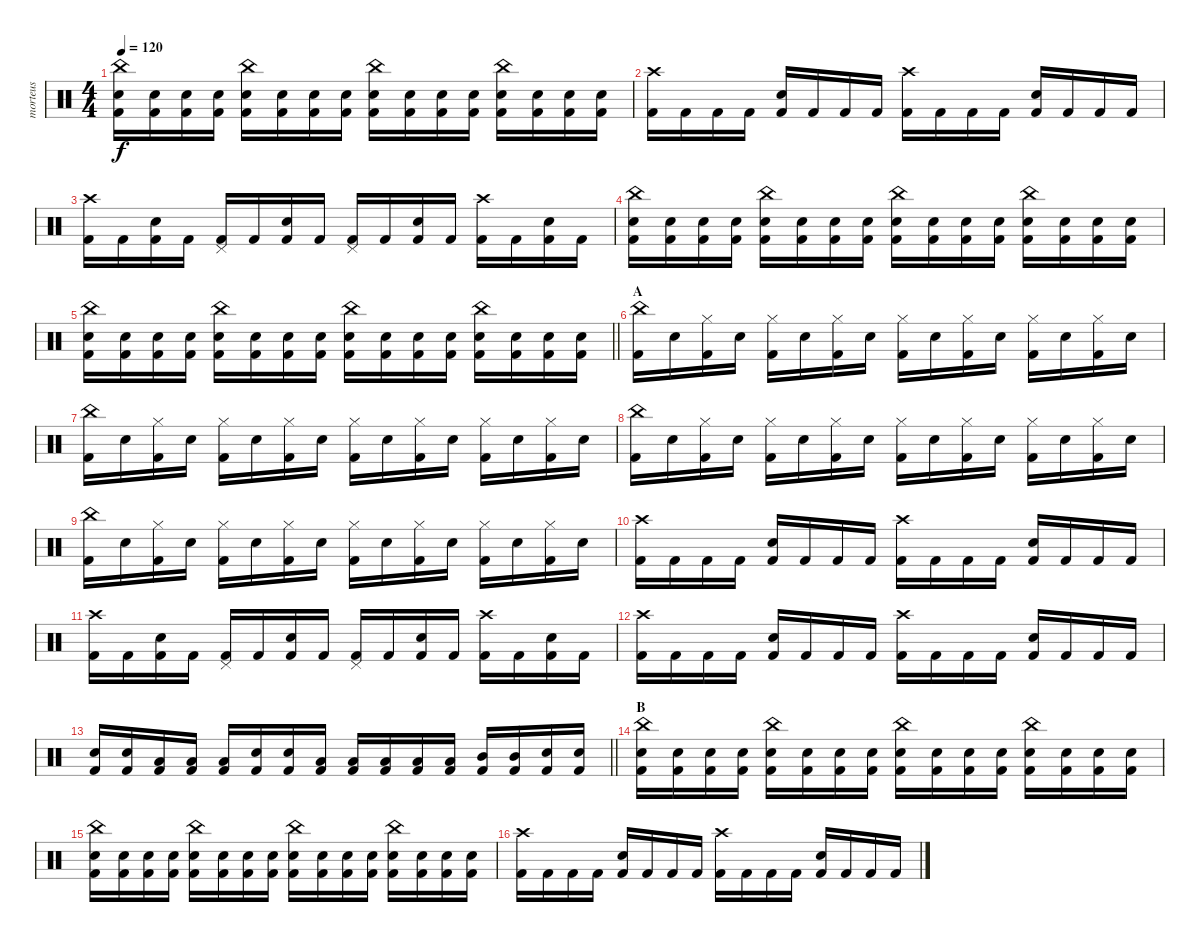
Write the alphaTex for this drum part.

\track ("morteus" "morteus") {instrument percussion}
\staff {score}
\articulation defaults
\ts (4 4)
\tempo 120
\clef neutral
\ks c
("China (hit)" "Electric Snare (hit)" "Kick (hit) 2").16{dy f} ("Electric Snare (hit)" "Kick (hit) 2").16 ("Electric Snare (hit)" "Kick (hit) 2").16 ("Electric Snare (hit)" "Kick (hit) 2").16 ("China (hit)" "Electric Snare (hit)" "Kick (hit) 2").16 ("Electric Snare (hit)" "Kick (hit) 2").16 ("Electric Snare (hit)" "Kick (hit) 2").16 ("Electric Snare (hit)" "Kick (hit) 2").16 ("China (hit)" "Electric Snare (hit)" "Kick (hit) 2").16 ("Electric Snare (hit)" "Kick (hit) 2").16 ("Electric Snare (hit)" "Kick (hit) 2").16 ("Electric Snare (hit)" "Kick (hit) 2").16 ("China (hit)" "Electric Snare (hit)" "Kick (hit) 2").16 ("Electric Snare (hit)" "Kick (hit) 2").16 ("Electric Snare (hit)" "Kick (hit) 2").16 ("Electric Snare (hit)" "Kick (hit) 2").16 |
("Crash high (hit)" "Kick (hit) 2").16 "Kick (hit) 2".16 "Kick (hit) 2".16 "Kick (hit) 2".16 ("Electric Snare (hit)" "Kick (hit) 2").16 "Kick (hit) 2".16 "Kick (hit) 2".16 "Kick (hit) 2".16 ("Crash high (hit)" "Kick (hit) 2").16 "Kick (hit) 2".16 "Kick (hit) 2".16 "Kick (hit) 2".16 ("Electric Snare (hit)" "Kick (hit) 2").16 "Kick (hit) 2".16 "Kick (hit) 2".16 "Kick (hit) 2".16 |
("Crash high (hit)" "Kick (hit) 2").16 "Kick (hit) 2".16 ("Electric Snare (hit)" "Kick (hit) 2").16 "Kick (hit) 2".16 ("Pedal Hi-Hat (hit)" "Kick (hit) 2").16 "Kick (hit) 2".16 ("Electric Snare (hit)" "Kick (hit) 2").16 "Kick (hit) 2".16 ("Pedal Hi-Hat (hit)" "Kick (hit) 2").16 "Kick (hit) 2".16 ("Electric Snare (hit)" "Kick (hit) 2").16 "Kick (hit) 2".16 ("Crash high (hit)" "Kick (hit) 2").16 "Kick (hit) 2".16 ("Electric Snare (hit)" "Kick (hit) 2").16 "Kick (hit) 2".16 |
("China (hit)" "Electric Snare (hit)" "Kick (hit) 2").16 ("Electric Snare (hit)" "Kick (hit) 2").16 ("Electric Snare (hit)" "Kick (hit) 2").16 ("Electric Snare (hit)" "Kick (hit) 2").16 ("China (hit)" "Electric Snare (hit)" "Kick (hit) 2").16 ("Electric Snare (hit)" "Kick (hit) 2").16 ("Electric Snare (hit)" "Kick (hit) 2").16 ("Electric Snare (hit)" "Kick (hit) 2").16 ("China (hit)" "Electric Snare (hit)" "Kick (hit) 2").16 ("Electric Snare (hit)" "Kick (hit) 2").16 ("Electric Snare (hit)" "Kick (hit) 2").16 ("Electric Snare (hit)" "Kick (hit) 2").16 ("China (hit)" "Electric Snare (hit)" "Kick (hit) 2").16 ("Electric Snare (hit)" "Kick (hit) 2").16 ("Electric Snare (hit)" "Kick (hit) 2").16 ("Electric Snare (hit)" "Kick (hit) 2").16 |
\barLineRight lightlight
("China (hit)" "Electric Snare (hit)" "Kick (hit) 2").16 ("Electric Snare (hit)" "Kick (hit) 2").16 ("Electric Snare (hit)" "Kick (hit) 2").16 ("Electric Snare (hit)" "Kick (hit) 2").16 ("China (hit)" "Electric Snare (hit)" "Kick (hit) 2").16 ("Electric Snare (hit)" "Kick (hit) 2").16 ("Electric Snare (hit)" "Kick (hit) 2").16 ("Electric Snare (hit)" "Kick (hit) 2").16 ("China (hit)" "Electric Snare (hit)" "Kick (hit) 2").16 ("Electric Snare (hit)" "Kick (hit) 2").16 ("Electric Snare (hit)" "Kick (hit) 2").16 ("Electric Snare (hit)" "Kick (hit) 2").16 ("China (hit)" "Electric Snare (hit)" "Kick (hit) 2").16 ("Electric Snare (hit)" "Kick (hit) 2").16 ("Electric Snare (hit)" "Kick (hit) 2").16 ("Electric Snare (hit)" "Kick (hit) 2").16 |
\section ("" "A")
("China (hit)" "Kick (hit) 2").16 "Electric Snare (hit)".16 ("Hi-Hat (closed)" "Kick (hit) 2").16 "Electric Snare (hit)".16 ("Hi-Hat (closed)" "Kick (hit) 2").16 "Electric Snare (hit)".16 ("Hi-Hat (closed)" "Kick (hit) 2").16 "Electric Snare (hit)".16 ("Hi-Hat (closed)" "Kick (hit) 2").16 "Electric Snare (hit)".16 ("Hi-Hat (closed)" "Kick (hit) 2").16 "Electric Snare (hit)".16 ("Hi-Hat (closed)" "Kick (hit) 2").16 "Electric Snare (hit)".16 ("Hi-Hat (closed)" "Kick (hit) 2").16 "Electric Snare (hit)".16 |
("China (hit)" "Kick (hit) 2").16 "Electric Snare (hit)".16 ("Hi-Hat (closed)" "Kick (hit) 2").16 "Electric Snare (hit)".16 ("Hi-Hat (closed)" "Kick (hit) 2").16 "Electric Snare (hit)".16 ("Hi-Hat (closed)" "Kick (hit) 2").16 "Electric Snare (hit)".16 ("Hi-Hat (closed)" "Kick (hit) 2").16 "Electric Snare (hit)".16 ("Hi-Hat (closed)" "Kick (hit) 2").16 "Electric Snare (hit)".16 ("Hi-Hat (closed)" "Kick (hit) 2").16 "Electric Snare (hit)".16 ("Hi-Hat (closed)" "Kick (hit) 2").16 "Electric Snare (hit)".16 |
("China (hit)" "Kick (hit) 2").16 "Electric Snare (hit)".16 ("Hi-Hat (closed)" "Kick (hit) 2").16 "Electric Snare (hit)".16 ("Hi-Hat (closed)" "Kick (hit) 2").16 "Electric Snare (hit)".16 ("Hi-Hat (closed)" "Kick (hit) 2").16 "Electric Snare (hit)".16 ("Hi-Hat (closed)" "Kick (hit) 2").16 "Electric Snare (hit)".16 ("Hi-Hat (closed)" "Kick (hit) 2").16 "Electric Snare (hit)".16 ("Hi-Hat (closed)" "Kick (hit) 2").16 "Electric Snare (hit)".16 ("Hi-Hat (closed)" "Kick (hit) 2").16 "Electric Snare (hit)".16 |
("China (hit)" "Kick (hit) 2").16 "Electric Snare (hit)".16 ("Hi-Hat (closed)" "Kick (hit) 2").16 "Electric Snare (hit)".16 ("Hi-Hat (closed)" "Kick (hit) 2").16 "Electric Snare (hit)".16 ("Hi-Hat (closed)" "Kick (hit) 2").16 "Electric Snare (hit)".16 ("Hi-Hat (closed)" "Kick (hit) 2").16 "Electric Snare (hit)".16 ("Hi-Hat (closed)" "Kick (hit) 2").16 "Electric Snare (hit)".16 ("Hi-Hat (closed)" "Kick (hit) 2").16 "Electric Snare (hit)".16 ("Hi-Hat (closed)" "Kick (hit) 2").16 "Electric Snare (hit)".16 |
("Crash high (hit)" "Kick (hit) 2").16 "Kick (hit) 2".16 "Kick (hit) 2".16 "Kick (hit) 2".16 ("Electric Snare (hit)" "Kick (hit) 2").16 "Kick (hit) 2".16 "Kick (hit) 2".16 "Kick (hit) 2".16 ("Crash high (hit)" "Kick (hit) 2").16 "Kick (hit) 2".16 "Kick (hit) 2".16 "Kick (hit) 2".16 ("Electric Snare (hit)" "Kick (hit) 2").16 "Kick (hit) 2".16 "Kick (hit) 2".16 "Kick (hit) 2".16 |
("Crash high (hit)" "Kick (hit) 2").16 "Kick (hit) 2".16 ("Electric Snare (hit)" "Kick (hit) 2").16 "Kick (hit) 2".16 ("Pedal Hi-Hat (hit)" "Kick (hit) 2").16 "Kick (hit) 2".16 ("Electric Snare (hit)" "Kick (hit) 2").16 "Kick (hit) 2".16 ("Pedal Hi-Hat (hit)" "Kick (hit) 2").16 "Kick (hit) 2".16 ("Electric Snare (hit)" "Kick (hit) 2").16 "Kick (hit) 2".16 ("Crash high (hit)" "Kick (hit) 2").16 "Kick (hit) 2".16 ("Electric Snare (hit)" "Kick (hit) 2").16 "Kick (hit) 2".16 |
("Crash high (hit)" "Kick (hit) 2").16 "Kick (hit) 2".16 "Kick (hit) 2".16 "Kick (hit) 2".16 ("Electric Snare (hit)" "Kick (hit) 2").16 "Kick (hit) 2".16 "Kick (hit) 2".16 "Kick (hit) 2".16 ("Crash high (hit)" "Kick (hit) 2").16 "Kick (hit) 2".16 "Kick (hit) 2".16 "Kick (hit) 2".16 ("Electric Snare (hit)" "Kick (hit) 2").16 "Kick (hit) 2".16 "Kick (hit) 2".16 "Kick (hit) 2".16 |
\barLineRight lightlight
("Electric Snare (hit)" "Kick (hit) 2").16 ("Electric Snare (hit)" "Kick (hit) 2").16 ("Low Tom (hit)" "Kick (hit) 2").16 ("Low Tom (hit)" "Kick (hit) 2").16 ("Low Tom (hit)" "Kick (hit) 2").16 ("Electric Snare (hit)" "Kick (hit) 2").16 ("Electric Snare (hit)" "Kick (hit) 2").16 ("Low Tom (hit)" "Kick (hit) 2").16 ("Low Tom (hit)" "Kick (hit) 2").16 ("Low Tom (hit)" "Kick (hit) 2").16 ("Low Floor Tom (hit)" "Kick (hit) 2").16 ("Low Floor Tom (hit)" "Kick (hit) 2").16 ("Mid Tom (hit)" "Kick (hit) 2").16 ("Mid Tom (hit)" "Kick (hit) 2").16 ("Electric Snare (hit)" "Kick (hit) 2").16 ("Electric Snare (hit)" "Kick (hit) 2").16 |
\section ("" "B")
("China (hit)" "Electric Snare (hit)" "Kick (hit) 2").16 ("Electric Snare (hit)" "Kick (hit) 2").16 ("Electric Snare (hit)" "Kick (hit) 2").16 ("Electric Snare (hit)" "Kick (hit) 2").16 ("China (hit)" "Electric Snare (hit)" "Kick (hit) 2").16 ("Electric Snare (hit)" "Kick (hit) 2").16 ("Electric Snare (hit)" "Kick (hit) 2").16 ("Electric Snare (hit)" "Kick (hit) 2").16 ("China (hit)" "Electric Snare (hit)" "Kick (hit) 2").16 ("Electric Snare (hit)" "Kick (hit) 2").16 ("Electric Snare (hit)" "Kick (hit) 2").16 ("Electric Snare (hit)" "Kick (hit) 2").16 ("China (hit)" "Electric Snare (hit)" "Kick (hit) 2").16 ("Electric Snare (hit)" "Kick (hit) 2").16 ("Electric Snare (hit)" "Kick (hit) 2").16 ("Electric Snare (hit)" "Kick (hit) 2").16 |
("China (hit)" "Electric Snare (hit)" "Kick (hit) 2").16 ("Electric Snare (hit)" "Kick (hit) 2").16 ("Electric Snare (hit)" "Kick (hit) 2").16 ("Electric Snare (hit)" "Kick (hit) 2").16 ("China (hit)" "Electric Snare (hit)" "Kick (hit) 2").16 ("Electric Snare (hit)" "Kick (hit) 2").16 ("Electric Snare (hit)" "Kick (hit) 2").16 ("Electric Snare (hit)" "Kick (hit) 2").16 ("China (hit)" "Electric Snare (hit)" "Kick (hit) 2").16 ("Electric Snare (hit)" "Kick (hit) 2").16 ("Electric Snare (hit)" "Kick (hit) 2").16 ("Electric Snare (hit)" "Kick (hit) 2").16 ("China (hit)" "Electric Snare (hit)" "Kick (hit) 2").16 ("Electric Snare (hit)" "Kick (hit) 2").16 ("Electric Snare (hit)" "Kick (hit) 2").16 ("Electric Snare (hit)" "Kick (hit) 2").16 |
("Crash high (hit)" "Kick (hit) 2").16 "Kick (hit) 2".16 "Kick (hit) 2".16 "Kick (hit) 2".16 ("Electric Snare (hit)" "Kick (hit) 2").16 "Kick (hit) 2".16 "Kick (hit) 2".16 "Kick (hit) 2".16 ("Crash high (hit)" "Kick (hit) 2").16 "Kick (hit) 2".16 "Kick (hit) 2".16 "Kick (hit) 2".16 ("Electric Snare (hit)" "Kick (hit) 2").16 "Kick (hit) 2".16 "Kick (hit) 2".16 "Kick (hit) 2".16
